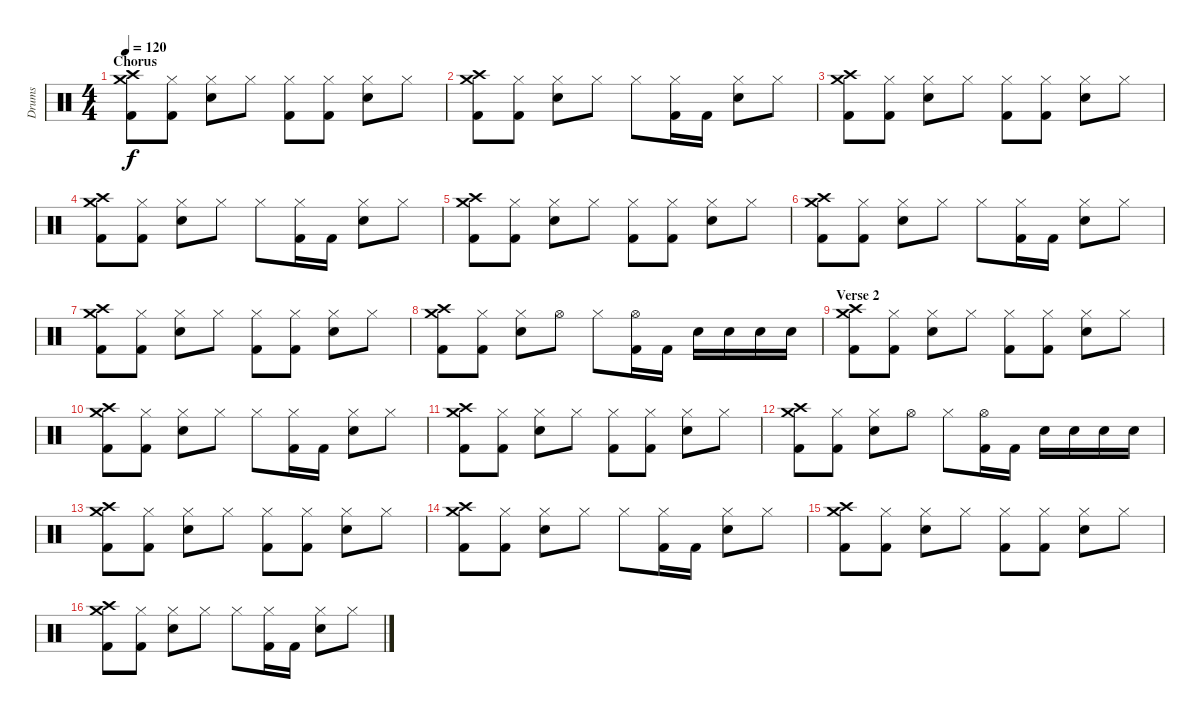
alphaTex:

\track ("Drums" "Drums") {instrument percussion}
\staff {score}
\articulation defaults
\ts (4 4)
\section ("" "Chorus")
\tempo 120
\clef neutral
\ks c
("Crash high (hit)" "Crash medium (hit)" "Kick (hit) 2").8{dy f} ("Hi-Hat (closed)" "Kick (hit) 2").8 ("Hi-Hat (closed)" "Snare (hit) 2").8 "Hi-Hat (closed)".8 ("Hi-Hat (closed)" "Kick (hit) 2").8 ("Hi-Hat (closed)" "Kick (hit) 2").8 ("Hi-Hat (closed)" "Snare (hit) 2").8 "Hi-Hat (closed)".8 |
("Crash high (hit)" "Crash medium (hit)" "Kick (hit) 2").8 ("Hi-Hat (closed)" "Kick (hit) 2").8 ("Hi-Hat (closed)" "Snare (hit) 2").8 "Hi-Hat (closed)".8 "Hi-Hat (closed)".8 ("Hi-Hat (closed)" "Kick (hit) 2").16 "Kick (hit) 2".16 ("Hi-Hat (closed)" "Snare (hit) 2").8 "Hi-Hat (closed)".8 |
("Crash high (hit)" "Crash medium (hit)" "Kick (hit) 2").8 ("Hi-Hat (closed)" "Kick (hit) 2").8 ("Hi-Hat (closed)" "Snare (hit) 2").8 "Hi-Hat (closed)".8 ("Hi-Hat (closed)" "Kick (hit) 2").8 ("Hi-Hat (closed)" "Kick (hit) 2").8 ("Hi-Hat (closed)" "Snare (hit) 2").8 "Hi-Hat (closed)".8 |
("Crash high (hit)" "Crash medium (hit)" "Kick (hit) 2").8 ("Hi-Hat (closed)" "Kick (hit) 2").8 ("Hi-Hat (closed)" "Snare (hit) 2").8 "Hi-Hat (closed)".8 "Hi-Hat (closed)".8 ("Hi-Hat (closed)" "Kick (hit) 2").16 "Kick (hit) 2".16 ("Hi-Hat (closed)" "Snare (hit) 2").8 "Hi-Hat (closed)".8 |
("Crash high (hit)" "Crash medium (hit)" "Kick (hit) 2").8 ("Hi-Hat (closed)" "Kick (hit) 2").8 ("Hi-Hat (closed)" "Snare (hit) 2").8 "Hi-Hat (closed)".8 ("Hi-Hat (closed)" "Kick (hit) 2").8 ("Hi-Hat (closed)" "Kick (hit) 2").8 ("Hi-Hat (closed)" "Snare (hit) 2").8 "Hi-Hat (closed)".8 |
("Crash high (hit)" "Crash medium (hit)" "Kick (hit) 2").8 ("Hi-Hat (closed)" "Kick (hit) 2").8 ("Hi-Hat (closed)" "Snare (hit) 2").8 "Hi-Hat (closed)".8 "Hi-Hat (closed)".8 ("Hi-Hat (closed)" "Kick (hit) 2").16 "Kick (hit) 2".16 ("Hi-Hat (closed)" "Snare (hit) 2").8 "Hi-Hat (closed)".8 |
("Crash high (hit)" "Crash medium (hit)" "Kick (hit) 2").8 ("Hi-Hat (closed)" "Kick (hit) 2").8 ("Hi-Hat (closed)" "Snare (hit) 2").8 "Hi-Hat (closed)".8 ("Hi-Hat (closed)" "Kick (hit) 2").8 ("Hi-Hat (closed)" "Kick (hit) 2").8 ("Hi-Hat (closed)" "Snare (hit) 2").8 "Hi-Hat (closed)".8 |
("Crash high (hit)" "Crash medium (hit)" "Kick (hit) 2").8 ("Hi-Hat (closed)" "Kick (hit) 2").8 ("Hi-Hat (closed)" "Snare (hit) 2").8 "Hi-Hat (open)".8 "Hi-Hat (closed)".8 ("Hi-Hat (open)" "Kick (hit) 2").16 "Kick (hit) 2".16 "Snare (hit) 2".16 "Snare (hit) 2".16 "Snare (hit) 2".16 "Snare (hit) 2".16 |
\section ("" "Verse 2")
("Crash high (hit)" "Crash medium (hit)" "Kick (hit) 2").8 ("Hi-Hat (closed)" "Kick (hit) 2").8 ("Hi-Hat (closed)" "Snare (hit) 2").8 "Hi-Hat (closed)".8 ("Hi-Hat (closed)" "Kick (hit) 2").8 ("Hi-Hat (closed)" "Kick (hit) 2").8 ("Hi-Hat (closed)" "Snare (hit) 2").8 "Hi-Hat (closed)".8 |
("Crash high (hit)" "Crash medium (hit)" "Kick (hit) 2").8 ("Hi-Hat (closed)" "Kick (hit) 2").8 ("Hi-Hat (closed)" "Snare (hit) 2").8 "Hi-Hat (closed)".8 "Hi-Hat (closed)".8 ("Hi-Hat (closed)" "Kick (hit) 2").16 "Kick (hit) 2".16 ("Hi-Hat (closed)" "Snare (hit) 2").8 "Hi-Hat (closed)".8 |
("Crash high (hit)" "Crash medium (hit)" "Kick (hit) 2").8 ("Hi-Hat (closed)" "Kick (hit) 2").8 ("Hi-Hat (closed)" "Snare (hit) 2").8 "Hi-Hat (closed)".8 ("Hi-Hat (closed)" "Kick (hit) 2").8 ("Hi-Hat (closed)" "Kick (hit) 2").8 ("Hi-Hat (closed)" "Snare (hit) 2").8 "Hi-Hat (closed)".8 |
("Crash high (hit)" "Crash medium (hit)" "Kick (hit) 2").8 ("Hi-Hat (closed)" "Kick (hit) 2").8 ("Hi-Hat (closed)" "Snare (hit) 2").8 "Hi-Hat (open)".8 "Hi-Hat (closed)".8 ("Hi-Hat (open)" "Kick (hit) 2").16 "Kick (hit) 2".16 "Snare (hit) 2".16 "Snare (hit) 2".16 "Snare (hit) 2".16 "Snare (hit) 2".16 |
("Crash high (hit)" "Crash medium (hit)" "Kick (hit) 2").8 ("Hi-Hat (closed)" "Kick (hit) 2").8 ("Hi-Hat (closed)" "Snare (hit) 2").8 "Hi-Hat (closed)".8 ("Hi-Hat (closed)" "Kick (hit) 2").8 ("Hi-Hat (closed)" "Kick (hit) 2").8 ("Hi-Hat (closed)" "Snare (hit) 2").8 "Hi-Hat (closed)".8 |
("Crash high (hit)" "Crash medium (hit)" "Kick (hit) 2").8 ("Hi-Hat (closed)" "Kick (hit) 2").8 ("Hi-Hat (closed)" "Snare (hit) 2").8 "Hi-Hat (closed)".8 "Hi-Hat (closed)".8 ("Hi-Hat (closed)" "Kick (hit) 2").16 "Kick (hit) 2".16 ("Hi-Hat (closed)" "Snare (hit) 2").8 "Hi-Hat (closed)".8 |
("Crash high (hit)" "Crash medium (hit)" "Kick (hit) 2").8 ("Hi-Hat (closed)" "Kick (hit) 2").8 ("Hi-Hat (closed)" "Snare (hit) 2").8 "Hi-Hat (closed)".8 ("Hi-Hat (closed)" "Kick (hit) 2").8 ("Hi-Hat (closed)" "Kick (hit) 2").8 ("Hi-Hat (closed)" "Snare (hit) 2").8 "Hi-Hat (closed)".8 |
("Crash high (hit)" "Crash medium (hit)" "Kick (hit) 2").8 ("Hi-Hat (closed)" "Kick (hit) 2").8 ("Hi-Hat (closed)" "Snare (hit) 2").8 "Hi-Hat (closed)".8 "Hi-Hat (closed)".8 ("Hi-Hat (closed)" "Kick (hit) 2").16 "Kick (hit) 2".16 ("Hi-Hat (closed)" "Snare (hit) 2").8 "Hi-Hat (closed)".8
